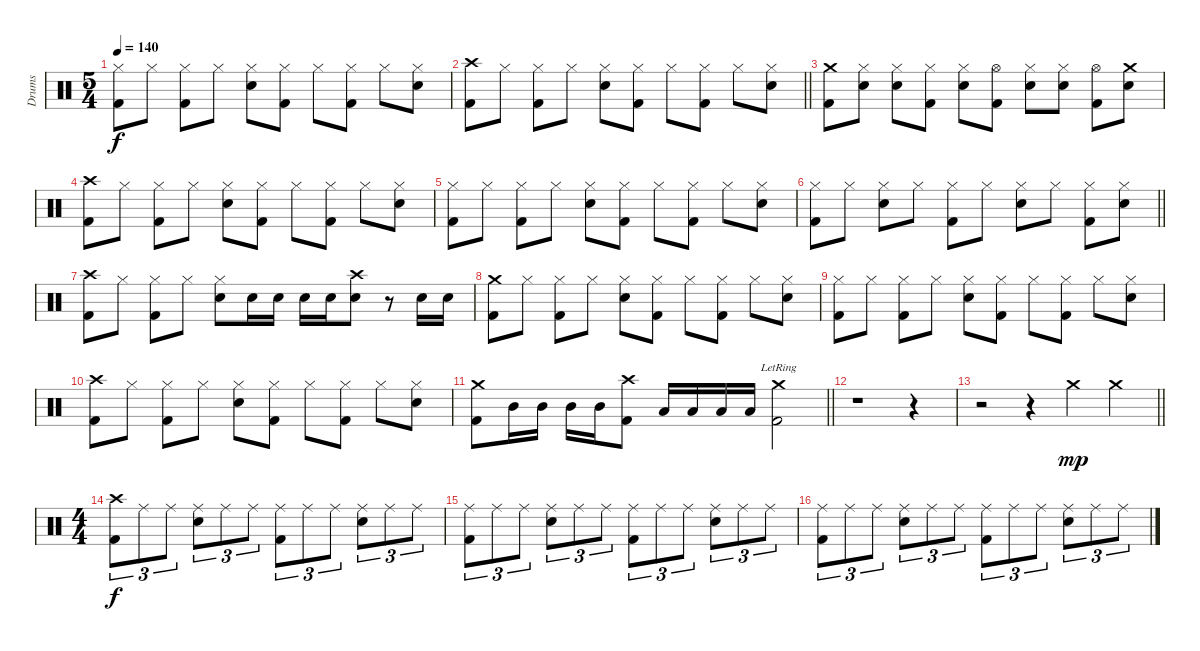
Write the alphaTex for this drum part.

\track ("Drums" "Drums") {instrument percussion}
\staff {score}
\articulation defaults
\ts (5 4)
\tempo 140
\clef neutral
\ks c
("Hi-Hat (closed)" "Kick (hit) 2").8{dy f} "Hi-Hat (closed)".8 ("Hi-Hat (closed)" "Kick (hit) 2").8 "Hi-Hat (closed)".8 ("Hi-Hat (closed)" "Snare (hit) 2").8 ("Hi-Hat (closed)" "Kick (hit) 2").8 "Hi-Hat (closed)".8 ("Hi-Hat (closed)" "Kick (hit) 2").8 "Hi-Hat (closed)".8 ("Hi-Hat (closed)" "Snare (hit) 2").8 |
\barLineRight lightlight
("Crash high (hit)" "Kick (hit) 2").8 "Hi-Hat (closed)".8 ("Hi-Hat (closed)" "Kick (hit) 2").8 "Hi-Hat (closed)".8 ("Hi-Hat (closed)" "Snare (hit) 2").8 ("Hi-Hat (closed)" "Kick (hit) 2").8 "Hi-Hat (closed)".8 ("Hi-Hat (closed)" "Kick (hit) 2").8 "Hi-Hat (closed)".8 ("Hi-Hat (closed)" "Snare (hit) 2").8 |
("Crash medium (hit)" "Kick (hit) 2").8 ("Hi-Hat (closed)" "Snare (hit) 2").8 ("Hi-Hat (closed)" "Snare (hit) 2").8 ("Hi-Hat (closed)" "Kick (hit) 2").8 ("Hi-Hat (closed)" "Snare (hit) 2").8 ("Hi-Hat (open)" "Kick (hit) 2").8 ("Hi-Hat (closed)" "Snare (hit) 2").8 ("Hi-Hat (closed)" "Snare (hit) 2").8 ("Hi-Hat (open)" "Kick (hit) 2").8 ("Crash medium (hit)" "Snare (hit) 2").8 |
("Crash high (hit)" "Kick (hit) 2").8 "Hi-Hat (closed)".8 ("Hi-Hat (closed)" "Kick (hit) 2").8 "Hi-Hat (closed)".8 ("Hi-Hat (closed)" "Snare (hit) 2").8 ("Hi-Hat (closed)" "Kick (hit) 2").8 "Hi-Hat (closed)".8 ("Hi-Hat (closed)" "Kick (hit) 2").8 "Hi-Hat (closed)".8 ("Hi-Hat (closed)" "Snare (hit) 2").8 |
("Hi-Hat (closed)" "Kick (hit) 2").8 "Hi-Hat (closed)".8 ("Hi-Hat (closed)" "Kick (hit) 2").8 "Hi-Hat (closed)".8 ("Hi-Hat (closed)" "Snare (hit) 2").8 ("Hi-Hat (closed)" "Kick (hit) 2").8 "Hi-Hat (closed)".8 ("Hi-Hat (closed)" "Kick (hit) 2").8 "Hi-Hat (closed)".8 ("Hi-Hat (closed)" "Snare (hit) 2").8 |
\barLineRight lightlight
("Hi-Hat (closed)" "Kick (hit) 2").8 "Hi-Hat (closed)".8 ("Hi-Hat (closed)" "Snare (hit) 2").8 "Hi-Hat (closed)".8 ("Hi-Hat (closed)" "Kick (hit) 2").8 "Hi-Hat (closed)".8 ("Hi-Hat (closed)" "Snare (hit) 2").8 "Hi-Hat (closed)".8 ("Hi-Hat (closed)" "Kick (hit) 2").8 ("Hi-Hat (closed)" "Snare (hit) 2").8 |
("Crash high (hit)" "Kick (hit) 2").8 "Hi-Hat (closed)".8 ("Hi-Hat (closed)" "Kick (hit) 2").8 "Hi-Hat (closed)".8 ("Hi-Hat (closed)" "Snare (hit) 2").8 "Snare (hit) 2".16 "Snare (hit) 2".16 "Snare (hit) 2".16 "Snare (hit) 2".16 ("Crash high (hit)" "Snare (hit) 2").8 r.8 "Snare (hit) 2".16 "Snare (hit) 2".16 |
("Crash medium (hit)" "Kick (hit) 2").8 "Hi-Hat (closed)".8 ("Hi-Hat (closed)" "Kick (hit) 2").8 "Hi-Hat (closed)".8 ("Hi-Hat (closed)" "Snare (hit) 2").8 ("Hi-Hat (closed)" "Kick (hit) 2").8 "Hi-Hat (closed)".8 ("Hi-Hat (closed)" "Kick (hit) 2").8 "Hi-Hat (closed)".8 ("Hi-Hat (closed)" "Snare (hit) 2").8 |
("Hi-Hat (closed)" "Kick (hit) 2").8 "Hi-Hat (closed)".8 ("Hi-Hat (closed)" "Kick (hit) 2").8 "Hi-Hat (closed)".8 ("Hi-Hat (closed)" "Snare (hit) 2").8 ("Hi-Hat (closed)" "Kick (hit) 2").8 "Hi-Hat (closed)".8 ("Hi-Hat (closed)" "Kick (hit) 2").8 "Hi-Hat (closed)".8 ("Hi-Hat (closed)" "Snare (hit) 2").8 |
("Crash high (hit)" "Kick (hit) 2").8 "Hi-Hat (closed)".8 ("Hi-Hat (closed)" "Kick (hit) 2").8 "Hi-Hat (closed)".8 ("Hi-Hat (closed)" "Snare (hit) 2").8 ("Hi-Hat (closed)" "Kick (hit) 2").8 "Hi-Hat (closed)".8 ("Hi-Hat (closed)" "Kick (hit) 2").8 "Hi-Hat (closed)".8 ("Hi-Hat (closed)" "Snare (hit) 2").8 |
\barLineRight lightlight
("Crash medium (hit)" "Kick (hit) 2").8 "Mid Tom (hit)".16 "Mid Tom (hit)".16 "Mid Tom (hit)".16 "Mid Tom (hit)".16 ("Crash high (hit)" "Kick (hit) 2").8 "Low Tom (hit)".16 "Low Tom (hit)".16 "Low Tom (hit)".16 "Low Tom (hit)".16 ("Crash medium (hit)"{lr} "Kick (hit) 2").2 |
r.1 r.4 |
\barLineRight lightlight
r.2 r.4 "Crash medium (hit)".4{dy mp} "Crash medium (hit)".4 |
\ts (4 4)
("Crash high (hit)" "Kick (hit) 2").8{tu (3 2) dy f} "Ride (middle)".8{tu (3 2)} "Ride (middle)".8{tu (3 2)} ("Ride (middle)" "Snare (hit) 2").8{tu (3 2)} "Ride (middle)".8{tu (3 2)} "Ride (middle)".8{tu (3 2)} ("Ride (middle)" "Kick (hit) 2").8{tu (3 2)} "Ride (middle)".8{tu (3 2)} "Ride (middle)".8{tu (3 2)} ("Ride (middle)" "Snare (hit) 2").8{tu (3 2)} "Ride (middle)".8{tu (3 2)} "Ride (middle)".8{tu (3 2)} |
("Ride (middle)" "Kick (hit) 2").8{tu (3 2)} "Ride (middle)".8{tu (3 2)} "Ride (middle)".8{tu (3 2)} ("Ride (middle)" "Snare (hit) 2").8{tu (3 2)} "Ride (middle)".8{tu (3 2)} "Ride (middle)".8{tu (3 2)} ("Ride (middle)" "Kick (hit) 2").8{tu (3 2)} "Ride (middle)".8{tu (3 2)} "Ride (middle)".8{tu (3 2)} ("Ride (middle)" "Snare (hit) 2").8{tu (3 2)} "Ride (middle)".8{tu (3 2)} "Ride (middle)".8{tu (3 2)} |
("Ride (middle)" "Kick (hit) 2").8{tu (3 2)} "Ride (middle)".8{tu (3 2)} "Ride (middle)".8{tu (3 2)} ("Ride (middle)" "Snare (hit) 2").8{tu (3 2)} "Ride (middle)".8{tu (3 2)} "Ride (middle)".8{tu (3 2)} ("Ride (middle)" "Kick (hit) 2").8{tu (3 2)} "Ride (middle)".8{tu (3 2)} "Ride (middle)".8{tu (3 2)} ("Ride (middle)" "Snare (hit) 2").8{tu (3 2)} "Ride (middle)".8{tu (3 2)} "Ride (middle)".8{tu (3 2)}
